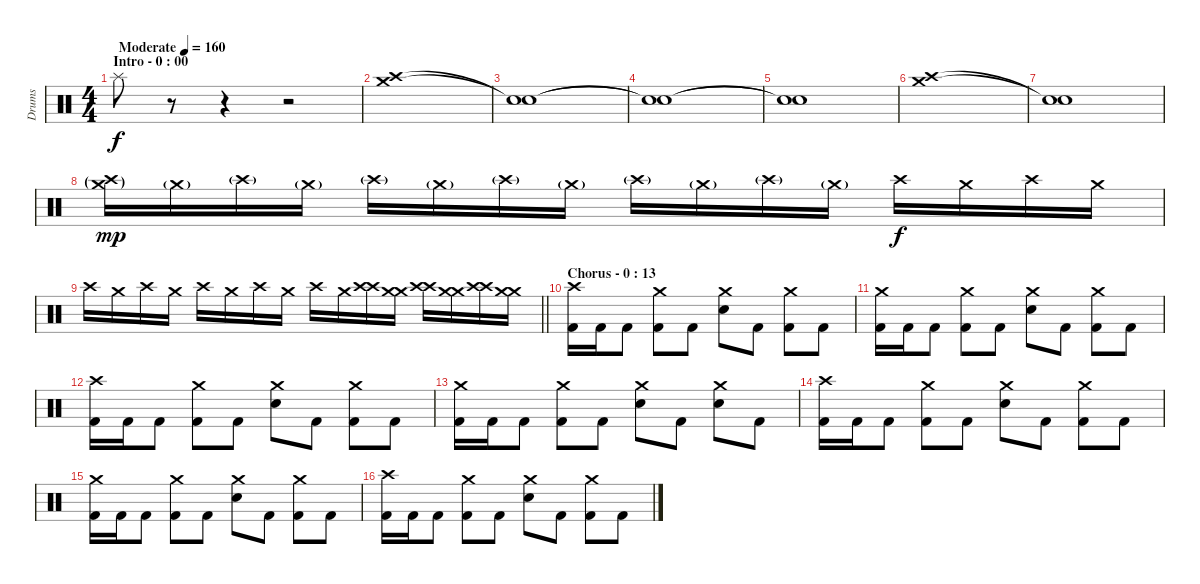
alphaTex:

\track ("Drums" "Drums") {instrument percussion}
\staff {score}
\articulation defaults
\ts (4 4)
\section ("" "Intro - 0 : 00")
\tempo (160 "Moderate")
\clef neutral
\ks c "Splash (hit)".8{dy f}
r.8 r.4 r.2 |
("Crash high (hit)" "Crash medium (hit)").1 |
("Snare (hit)"{t} "Snare (hit)"{t}).1 |
("Snare (hit)"{t} "Snare (hit)"{t}).1 |
("Snare (hit)"{t} "Snare (hit)"{t}).1 |
("Crash high (hit)" "Crash medium (hit)").1 |
("Snare (hit)"{t} "Snare (hit)"{t}).1 |
("Crash high (hit)"{g} "Crash medium (hit)"{g}).16{dy mp} "Crash medium (hit)"{g}.16 "Crash high (hit)"{g}.16 "Crash medium (hit)"{g}.16 "Crash high (hit)"{g}.16 "Crash medium (hit)"{g}.16 "Crash high (hit)"{g}.16 "Crash medium (hit)"{g}.16 "Crash high (hit)"{g}.16 "Crash medium (hit)"{g}.16 "Crash high (hit)"{g}.16 "Crash medium (hit)"{g}.16 "Crash high (hit)".16{dy f} "Crash medium (hit)".16 "Crash high (hit)".16 "Crash medium (hit)".16 |
\barLineRight lightlight "Crash high (hit)".16 "Crash medium (hit)".16 "Crash high (hit)".16 "Crash medium (hit)".16 "Crash high (hit)".16 "Crash medium (hit)".16 "Crash high (hit)".16 "Crash medium (hit)".16 "Crash high (hit)".16 "Crash medium (hit)".16
("Crash high (hit)" "Crash high (hit)").16 ("Crash medium (hit)" "Crash medium (hit)").16 ("Crash high (hit)" "Crash high (hit)").16 ("Crash medium (hit)" "Crash medium (hit)").16 ("Crash high (hit)" "Crash high (hit)").16 ("Crash medium (hit)" "Crash medium (hit)").16 |
\section ("" "Chorus - 0 : 13")
("Crash high (hit)" "Kick (hit) 2").16 "Kick (hit) 2".16 "Kick (hit) 2".8 ("Crash medium (hit)" "Kick (hit) 2").8 "Kick (hit) 2".8 ("Crash medium (hit)" "Snare (hit) 2").8 "Kick (hit) 2".8 ("Crash medium (hit)" "Kick (hit) 2").8 "Kick (hit) 2".8 |
("Crash medium (hit)" "Kick (hit) 2").16 "Kick (hit) 2".16 "Kick (hit) 2".8 ("Crash medium (hit)" "Kick (hit) 2").8 "Kick (hit) 2".8 ("Crash medium (hit)" "Snare (hit) 2").8 "Kick (hit) 2".8 ("Crash medium (hit)" "Kick (hit) 2").8 "Kick (hit) 2".8 |
("Crash high (hit)" "Kick (hit) 2").16 "Kick (hit) 2".16 "Kick (hit) 2".8 ("Crash medium (hit)" "Kick (hit) 2").8 "Kick (hit) 2".8 ("Crash medium (hit)" "Snare (hit) 2").8 "Kick (hit) 2".8 ("Crash medium (hit)" "Kick (hit) 2").8 "Kick (hit) 2".8 |
("Crash medium (hit)" "Kick (hit) 2").16 "Kick (hit) 2".16 "Kick (hit) 2".8 ("Crash medium (hit)" "Kick (hit) 2").8 "Kick (hit) 2".8 ("Crash medium (hit)" "Snare (hit) 2").8 "Kick (hit) 2".8 ("Crash medium (hit)" "Snare (hit) 2").8 "Kick (hit) 2".8 |
("Crash high (hit)" "Kick (hit) 2").16 "Kick (hit) 2".16 "Kick (hit) 2".8 ("Crash medium (hit)" "Kick (hit) 2").8 "Kick (hit) 2".8 ("Crash medium (hit)" "Snare (hit) 2").8 "Kick (hit) 2".8 ("Crash medium (hit)" "Kick (hit) 2").8 "Kick (hit) 2".8 |
("Crash medium (hit)" "Kick (hit) 2").16 "Kick (hit) 2".16 "Kick (hit) 2".8 ("Crash medium (hit)" "Kick (hit) 2").8 "Kick (hit) 2".8 ("Crash medium (hit)" "Snare (hit) 2").8 "Kick (hit) 2".8 ("Crash medium (hit)" "Kick (hit) 2").8 "Kick (hit) 2".8 |
("Crash high (hit)" "Kick (hit) 2").16 "Kick (hit) 2".16 "Kick (hit) 2".8 ("Crash medium (hit)" "Kick (hit) 2").8 "Kick (hit) 2".8 ("Crash medium (hit)" "Snare (hit) 2").8 "Kick (hit) 2".8 ("Crash medium (hit)" "Kick (hit) 2").8 "Kick (hit) 2".8
